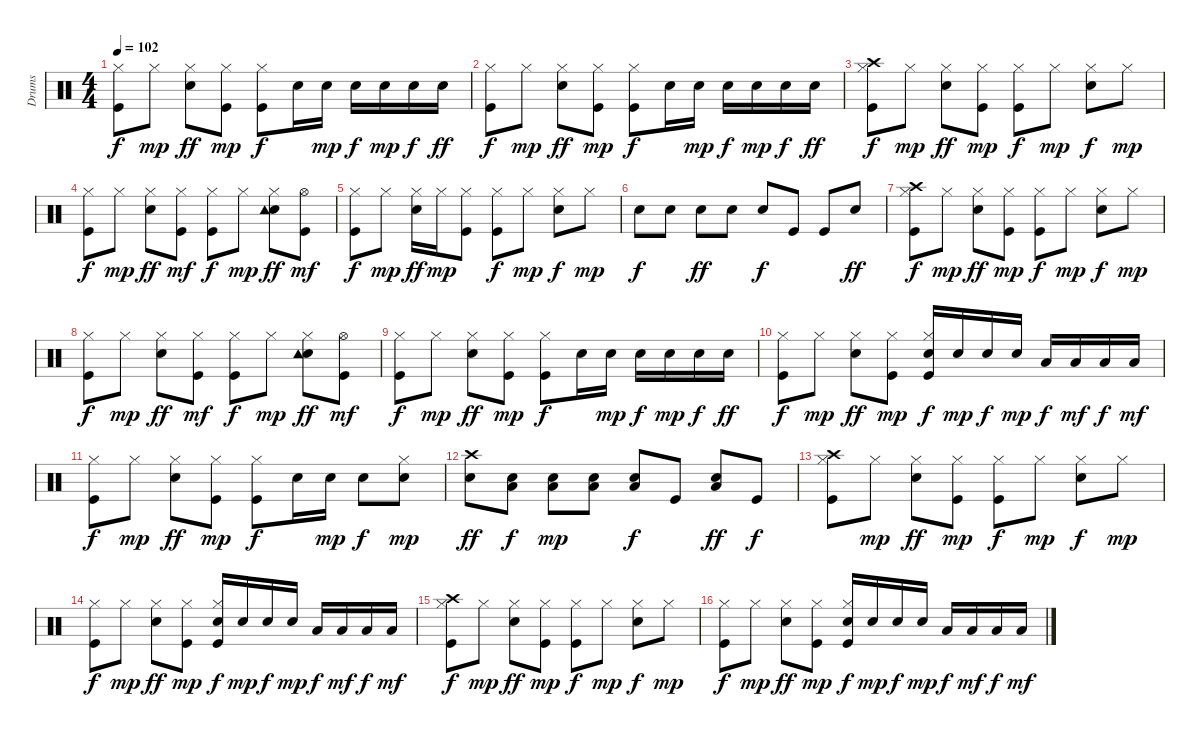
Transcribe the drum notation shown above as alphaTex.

\track ("Drums" "Drums") {instrument percussion}
\staff {score}
\articulation defaults
\ts (4 4)
\tempo 102
\clef neutral
\ks c
("Kick (hit)" "Hi-Hat (closed)").8{dy f} "Hi-Hat (closed)".8{dy mp} ("Snare (hit) 2" "Hi-Hat (closed)").8{dy ff} ("Kick (hit)" "Hi-Hat (closed)").8{dy mp} ("Kick (hit)" "Hi-Hat (closed)").8{dy f} "Snare (hit) 2".16 "Snare (hit) 2".16{dy mp} "Snare (hit) 2".16{dy f} "Snare (hit) 2".16{dy mp} "Snare (hit) 2".16{dy f} "Snare (hit) 2".16{dy ff} |
("Kick (hit)" "Hi-Hat (closed)").8{dy f} "Hi-Hat (closed)".8{dy mp} ("Snare (hit) 2" "Hi-Hat (closed)").8{dy ff} ("Kick (hit)" "Hi-Hat (closed)").8{dy mp} ("Kick (hit)" "Hi-Hat (closed)").8{dy f} "Snare (hit) 2".16 "Snare (hit) 2".16{dy mp} "Snare (hit) 2".16{dy f} "Snare (hit) 2".16{dy mp} "Snare (hit) 2".16{dy f} "Snare (hit) 2".16{dy ff} |
("Kick (hit)" "Hi-Hat (closed)" "Crash high (hit)").8{dy f} "Hi-Hat (closed)".8{dy mp} ("Snare (hit) 2" "Hi-Hat (closed)").8{dy ff} ("Kick (hit)" "Hi-Hat (closed)").8{dy mp} ("Kick (hit)" "Hi-Hat (closed)").8{dy f} "Hi-Hat (closed)".8{dy mp} ("Snare (hit) 2" "Hi-Hat (closed)").8{dy f} "Hi-Hat (closed)".8{dy mp} |
("Kick (hit)" "Hi-Hat (closed)").8{dy f} "Hi-Hat (closed)".8{dy mp} ("Snare (hit) 2" "Hi-Hat (closed)").8{dy ff} ("Kick (hit)" "Hi-Hat (closed)").8{dy mf} ("Kick (hit)" "Hi-Hat (closed)").8{dy f} "Hi-Hat (closed)".8{dy mp} ("Snare (hit) 2" "Hi-Hat (closed)" "Tambourine (hit)").8{dy ff} ("Kick (hit)" "Hi-Hat (open)").8{dy mf} |
("Kick (hit)" "Hi-Hat (closed)").8{dy f} "Hi-Hat (closed)".8{dy mp} ("Snare (hit) 2" "Hi-Hat (closed)").16{dy ff} "Hi-Hat (closed)".16{dy mp} ("Kick (hit)" "Hi-Hat (closed)").8 ("Kick (hit)" "Hi-Hat (closed)").8{dy f} "Hi-Hat (closed)".8{dy mp} ("Snare (hit) 2" "Hi-Hat (closed)").8{dy f} "Hi-Hat (closed)".8{dy mp} |
"Snare (hit) 2".8{dy f} "Snare (hit) 2".8 "Snare (hit) 2".8{dy ff} "Snare (hit) 2".8 "Snare (hit) 2".8{dy f} "Kick (hit)".8 "Kick (hit)".8 "Snare (hit) 2".8{dy ff} |
("Kick (hit)" "Hi-Hat (closed)" "Crash high (hit)").8{dy f} "Hi-Hat (closed)".8{dy mp} ("Snare (hit) 2" "Hi-Hat (closed)").8{dy ff} ("Kick (hit)" "Hi-Hat (closed)").8{dy mp} ("Kick (hit)" "Hi-Hat (closed)").8{dy f} "Hi-Hat (closed)".8{dy mp} ("Snare (hit) 2" "Hi-Hat (closed)").8{dy f} "Hi-Hat (closed)".8{dy mp} |
("Kick (hit)" "Hi-Hat (closed)").8{dy f} "Hi-Hat (closed)".8{dy mp} ("Snare (hit) 2" "Hi-Hat (closed)").8{dy ff} ("Kick (hit)" "Hi-Hat (closed)").8{dy mf} ("Kick (hit)" "Hi-Hat (closed)").8{dy f} "Hi-Hat (closed)".8{dy mp} ("Snare (hit) 2" "Hi-Hat (closed)" "Tambourine (hit)").8{dy ff} ("Kick (hit)" "Hi-Hat (open)").8{dy mf} |
("Kick (hit)" "Hi-Hat (closed)").8{dy f} "Hi-Hat (closed)".8{dy mp} ("Snare (hit) 2" "Hi-Hat (closed)").8{dy ff} ("Kick (hit)" "Hi-Hat (closed)").8{dy mp} ("Kick (hit)" "Hi-Hat (closed)").8{dy f} "Snare (hit) 2".16 "Snare (hit) 2".16{dy mp} "Snare (hit) 2".16{dy f} "Snare (hit) 2".16{dy mp} "Snare (hit) 2".16{dy f} "Snare (hit) 2".16{dy ff} |
("Kick (hit)" "Hi-Hat (closed)").8{dy f} "Hi-Hat (closed)".8{dy mp} ("Snare (hit) 2" "Hi-Hat (closed)").8{dy ff} ("Kick (hit)" "Hi-Hat (closed)").8{dy mp} ("Kick (hit)" "Snare (hit) 2" "Hi-Hat (closed)").16{dy f} "Snare (hit) 2".16{dy mp} "Snare (hit) 2".16{dy f} "Snare (hit) 2".16{dy mp} "Low Tom (hit)".16{dy f} "Low Tom (hit)".16{dy mf} "Low Tom (hit)".16{dy f} "Low Tom (hit)".16{dy mf} |
("Kick (hit)" "Hi-Hat (closed)").8{dy f} "Hi-Hat (closed)".8{dy mp} ("Snare (hit) 2" "Hi-Hat (closed)").8{dy ff} ("Kick (hit)" "Hi-Hat (closed)").8{dy mp} ("Kick (hit)" "Hi-Hat (closed)").8{dy f} "Snare (hit) 2".16 "Snare (hit) 2".16{dy mp} "Snare (hit) 2".8{dy f} ("Snare (hit) 2" "Hi-Hat (closed)").8{dy mp} |
("Snare (hit) 2" "Crash high (hit)").8{dy ff} ("Snare (hit) 2" "Low Floor Tom (hit)").8{dy f} ("Snare (hit) 2" "Low Floor Tom (hit)").8{dy mp} ("Snare (hit) 2" "Low Floor Tom (hit)").8 ("Snare (hit) 2" "Low Floor Tom (hit)").8{dy f} "Kick (hit)".8 ("Snare (hit) 2" "Low Floor Tom (hit)").8{dy ff} "Kick (hit)".8{dy f} |
("Kick (hit)" "Hi-Hat (closed)" "Crash high (hit)").8 "Hi-Hat (closed)".8{dy mp} ("Snare (hit) 2" "Hi-Hat (closed)").8{dy ff} ("Kick (hit)" "Hi-Hat (closed)").8{dy mp} ("Kick (hit)" "Hi-Hat (closed)").8{dy f} "Hi-Hat (closed)".8{dy mp} ("Snare (hit) 2" "Hi-Hat (closed)").8{dy f} "Hi-Hat (closed)".8{dy mp} |
("Kick (hit)" "Hi-Hat (closed)").8{dy f} "Hi-Hat (closed)".8{dy mp} ("Snare (hit) 2" "Hi-Hat (closed)").8{dy ff} ("Kick (hit)" "Hi-Hat (closed)").8{dy mp} ("Kick (hit)" "Snare (hit) 2" "Hi-Hat (closed)").16{dy f} "Snare (hit) 2".16{dy mp} "Snare (hit) 2".16{dy f} "Snare (hit) 2".16{dy mp} "Low Tom (hit)".16{dy f} "Low Tom (hit)".16{dy mf} "Low Tom (hit)".16{dy f} "Low Tom (hit)".16{dy mf} |
("Kick (hit)" "Hi-Hat (closed)" "Crash high (hit)").8{dy f} "Hi-Hat (closed)".8{dy mp} ("Snare (hit) 2" "Hi-Hat (closed)").8{dy ff} ("Kick (hit)" "Hi-Hat (closed)").8{dy mp} ("Kick (hit)" "Hi-Hat (closed)").8{dy f} "Hi-Hat (closed)".8{dy mp} ("Snare (hit) 2" "Hi-Hat (closed)").8{dy f} "Hi-Hat (closed)".8{dy mp} |
("Kick (hit)" "Hi-Hat (closed)").8{dy f} "Hi-Hat (closed)".8{dy mp} ("Snare (hit) 2" "Hi-Hat (closed)").8{dy ff} ("Kick (hit)" "Hi-Hat (closed)").8{dy mp} ("Kick (hit)" "Snare (hit) 2" "Hi-Hat (closed)").16{dy f} "Snare (hit) 2".16{dy mp} "Snare (hit) 2".16{dy f} "Snare (hit) 2".16{dy mp} "Low Tom (hit)".16{dy f} "Low Tom (hit)".16{dy mf} "Low Tom (hit)".16{dy f} "Low Tom (hit)".16{dy mf}
